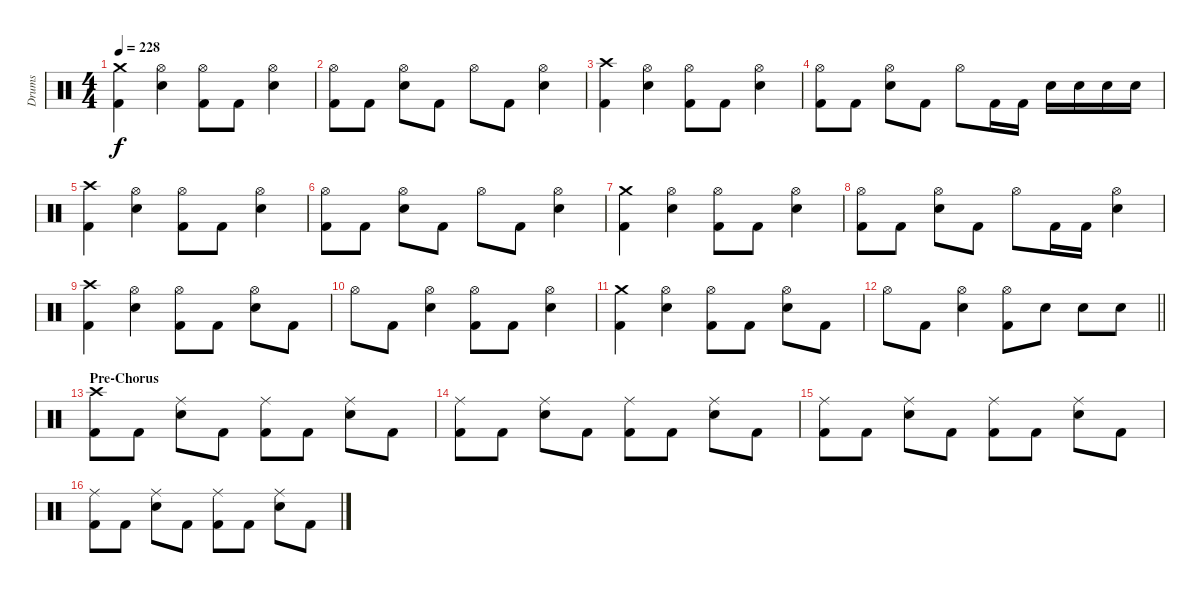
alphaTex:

\track ("Drums" "Drums") {instrument percussion}
\staff {score}
\articulation defaults
\ts (4 4)
\tempo 228
\clef neutral
\ks c
("Crash medium (hit)" "Kick (hit) 2").4{dy f} ("Hi-Hat (open)" "Snare (hit) 2").4 ("Hi-Hat (open)" "Kick (hit) 2").8 "Kick (hit) 2".8 ("Hi-Hat (open)" "Snare (hit) 2").4 |
("Hi-Hat (open)" "Kick (hit) 2").8 "Kick (hit) 2".8 ("Hi-Hat (open)" "Snare (hit) 2").8 "Kick (hit) 2".8 "Hi-Hat (open)".8 "Kick (hit) 2".8 ("Hi-Hat (open)" "Snare (hit) 2").4 |
("Crash high (hit)" "Kick (hit) 2").4 ("Hi-Hat (open)" "Snare (hit) 2").4 ("Hi-Hat (open)" "Kick (hit) 2").8 "Kick (hit) 2".8 ("Hi-Hat (open)" "Snare (hit) 2").4 |
("Hi-Hat (open)" "Kick (hit) 2").8 "Kick (hit) 2".8 ("Hi-Hat (open)" "Snare (hit) 2").8 "Kick (hit) 2".8 "Hi-Hat (open)".8 "Kick (hit) 2".16 "Kick (hit) 2".16 "Snare (hit) 2".16 "Snare (hit) 2".16 "Snare (hit) 2".16 "Snare (hit) 2".16 |
("Crash high (hit)" "Kick (hit) 2").4 ("Hi-Hat (open)" "Snare (hit) 2").4 ("Hi-Hat (open)" "Kick (hit) 2").8 "Kick (hit) 2".8 ("Hi-Hat (open)" "Snare (hit) 2").4 |
("Hi-Hat (open)" "Kick (hit) 2").8 "Kick (hit) 2".8 ("Hi-Hat (open)" "Snare (hit) 2").8 "Kick (hit) 2".8 "Hi-Hat (open)".8 "Kick (hit) 2".8 ("Hi-Hat (open)" "Snare (hit) 2").4 |
("Crash medium (hit)" "Kick (hit) 2").4 ("Hi-Hat (open)" "Snare (hit) 2").4 ("Hi-Hat (open)" "Kick (hit) 2").8 "Kick (hit) 2".8 ("Hi-Hat (open)" "Snare (hit) 2").4 |
("Hi-Hat (open)" "Kick (hit) 2").8 "Kick (hit) 2".8 ("Hi-Hat (open)" "Snare (hit) 2").8 "Kick (hit) 2".8 "Hi-Hat (open)".8 "Kick (hit) 2".16 "Kick (hit) 2".16 ("Hi-Hat (open)" "Snare (hit) 2").4 |
("Crash high (hit)" "Kick (hit) 2").4 ("Hi-Hat (open)" "Snare (hit) 2").4 ("Hi-Hat (open)" "Kick (hit) 2").8 "Kick (hit) 2".8 ("Hi-Hat (open)" "Snare (hit) 2").8 "Kick (hit) 2".8 |
"Hi-Hat (open)".8 "Kick (hit) 2".8 ("Hi-Hat (open)" "Snare (hit) 2").4 ("Hi-Hat (open)" "Kick (hit) 2").8 "Kick (hit) 2".8 ("Hi-Hat (open)" "Snare (hit) 2").4 |
("Crash medium (hit)" "Kick (hit) 2").4 ("Hi-Hat (open)" "Snare (hit) 2").4 ("Hi-Hat (open)" "Kick (hit) 2").8 "Kick (hit) 2".8 ("Hi-Hat (open)" "Snare (hit) 2").8 "Kick (hit) 2".8 |
\barLineRight lightlight "Hi-Hat (open)".8 "Kick (hit) 2".8
("Hi-Hat (open)" "Snare (hit) 2").4 ("Hi-Hat (open)" "Kick (hit) 2").8 "Snare (hit) 2".8 "Snare (hit) 2".8 "Snare (hit) 2".8 |
\section ("" "Pre-Chorus")
("Crash high (hit)" "Kick (hit) 2").8 "Kick (hit) 2".8 ("Ride (middle)" "Snare (hit) 2").8 "Kick (hit) 2".8 ("Ride (middle)" "Kick (hit) 2").8 "Kick (hit) 2".8 ("Ride (middle)" "Snare (hit) 2").8 "Kick (hit) 2".8 |
("Ride (middle)" "Kick (hit) 2").8 "Kick (hit) 2".8 ("Ride (middle)" "Snare (hit) 2").8 "Kick (hit) 2".8 ("Ride (middle)" "Kick (hit) 2").8 "Kick (hit) 2".8 ("Ride (middle)" "Snare (hit) 2").8 "Kick (hit) 2".8 |
("Ride (middle)" "Kick (hit) 2").8 "Kick (hit) 2".8 ("Ride (middle)" "Snare (hit) 2").8 "Kick (hit) 2".8 ("Ride (middle)" "Kick (hit) 2").8 "Kick (hit) 2".8 ("Ride (middle)" "Snare (hit) 2").8 "Kick (hit) 2".8 |
("Ride (middle)" "Kick (hit) 2").8 "Kick (hit) 2".8 ("Ride (middle)" "Snare (hit) 2").8 "Kick (hit) 2".8 ("Ride (middle)" "Kick (hit) 2").8 "Kick (hit) 2".8 ("Ride (middle)" "Snare (hit) 2").8 "Kick (hit) 2".8
